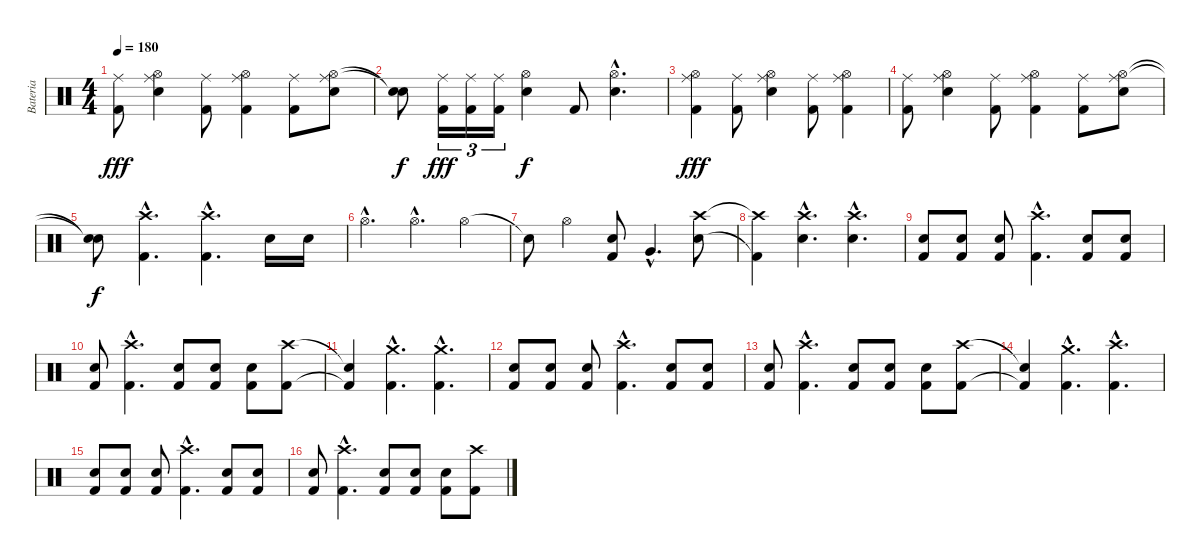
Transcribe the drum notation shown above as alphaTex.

\track ("Bateria" "Bateria") {instrument percussion}
\staff {score}
\articulation defaults
\ts (4 4)
\tempo 180
\clef neutral
\ks c
("Ride (middle)" "Kick (hit) 2").8{dy fff} ("Hi-Hat (open)" "Ride (middle)" "Electric Snare (hit)").4 ("Ride (middle)" "Kick (hit) 2").8 ("Hi-Hat (open)" "Ride (middle)" "Kick (hit) 2").4 ("Ride (middle)" "Kick (hit) 2").8 ("Hi-Hat (open)" "Ride (middle)" "Electric Snare (hit)").8 |
("Snare (hit)"{t} "Snare (hit)"{t}).8{dy f} ("Ride (middle)" "Kick (hit) 2").16{tu (3 2) dy fff} ("Ride (middle)" "Kick (hit) 2").16{tu (3 2)} ("Ride (middle)" "Kick (hit) 2").16{tu (3 2)} ("Hi-Hat (open)" "Electric Snare (hit)").4{dy f} "Kick (hit) 2".8 ("Hi-Hat (open)"{hac} "Electric Snare (hit)"{hac}).4{d} |
("Hi-Hat (open)" "Ride (middle)" "Kick (hit) 2").4{dy fff} ("Ride (middle)" "Kick (hit) 2").8 ("Hi-Hat (open)" "Ride (middle)" "Electric Snare (hit)").4 ("Ride (middle)" "Kick (hit) 2").8 ("Hi-Hat (open)" "Ride (middle)" "Kick (hit) 2").4 |
("Ride (middle)" "Kick (hit) 2").8 ("Hi-Hat (open)" "Ride (middle)" "Electric Snare (hit)").4 ("Ride (middle)" "Kick (hit) 2").8 ("Hi-Hat (open)" "Ride (middle)" "Kick (hit) 2").4 ("Ride (middle)" "Kick (hit) 2").8 ("Hi-Hat (open)" "Ride (middle)" "Electric Snare (hit)").8 |
("Snare (hit)"{t} "Snare (hit)"{t}).8{dy f} ("Crash high (hit)"{hac} "Kick (hit) 2"{hac}).4{d} ("Crash high (hit)"{hac} "Kick (hit) 2"{hac}).4{d} "Electric Snare (hit)".16 "Electric Snare (hit)".16 |
"Hi-Hat (open)"{hac}.4{d} "Hi-Hat (open)"{hac}.4{d} "Hi-Hat (open)".4 |
"Snare (hit)"{t}.8 "Hi-Hat (open)".4 ("Electric Snare (hit)" "Kick (hit) 2").8 "Very Low Tom (hit)"{hac}.4{d} ("Crash high (hit)" "Snare (hit) 2").8 |
("Crash high (hit)"{t} "Kick (hit) 2"{t}).4 ("Crash high (hit)"{hac} "Snare (hit) 2"{hac}).4{d} ("Crash high (hit)"{hac} "Snare (hit) 2"{hac}).4{d} |
("Snare (hit) 2" "Kick (hit) 2").8 ("Snare (hit) 2" "Kick (hit) 2").8 ("Snare (hit) 2" "Kick (hit) 2").8 ("Crash high (hit)"{hac} "Kick (hit) 2"{hac}).4{d} ("Snare (hit) 2" "Kick (hit) 2").8 ("Snare (hit) 2" "Kick (hit) 2").8 |
("Snare (hit) 2" "Kick (hit) 2").8 ("Crash high (hit)"{hac} "Kick (hit) 2"{hac}).4{d} ("Snare (hit) 2" "Kick (hit) 2").8 ("Snare (hit) 2" "Kick (hit) 2").8 ("Snare (hit) 2" "Kick (hit) 2").8 ("Crash high (hit)" "Kick (hit) 2").8 |
("Snare (hit)"{t} "Kick (hit) 2"{t}).4 ("Crash medium (hit)"{hac} "Kick (hit) 2"{hac}).4{d} ("Crash medium (hit)"{hac} "Kick (hit) 2"{hac}).4{d} |
("Snare (hit) 2" "Kick (hit) 2").8 ("Snare (hit) 2" "Kick (hit) 2").8 ("Snare (hit) 2" "Kick (hit) 2").8 ("Crash high (hit)"{hac} "Kick (hit) 2"{hac}).4{d} ("Snare (hit) 2" "Kick (hit) 2").8 ("Snare (hit) 2" "Kick (hit) 2").8 |
("Snare (hit) 2" "Kick (hit) 2").8 ("Crash high (hit)"{hac} "Kick (hit) 2"{hac}).4{d} ("Snare (hit) 2" "Kick (hit) 2").8 ("Snare (hit) 2" "Kick (hit) 2").8 ("Snare (hit) 2" "Kick (hit) 2").8 ("Crash high (hit)" "Kick (hit) 2").8 |
("Snare (hit)"{t} "Kick (hit) 2"{t}).4 ("Crash medium (hit)"{hac} "Kick (hit) 2"{hac}).4{d} ("Crash high (hit)"{hac} "Kick (hit) 2"{hac}).4{d} |
("Snare (hit) 2" "Kick (hit) 2").8 ("Snare (hit) 2" "Kick (hit) 2").8 ("Snare (hit) 2" "Kick (hit) 2").8 ("Crash high (hit)"{hac} "Kick (hit) 2"{hac}).4{d} ("Snare (hit) 2" "Kick (hit) 2").8 ("Snare (hit) 2" "Kick (hit) 2").8 |
("Snare (hit) 2" "Kick (hit) 2").8 ("Crash high (hit)"{hac} "Kick (hit) 2"{hac}).4{d} ("Snare (hit) 2" "Kick (hit) 2").8 ("Snare (hit) 2" "Kick (hit) 2").8 ("Snare (hit) 2" "Kick (hit) 2").8 ("Crash high (hit)" "Kick (hit) 2").8
